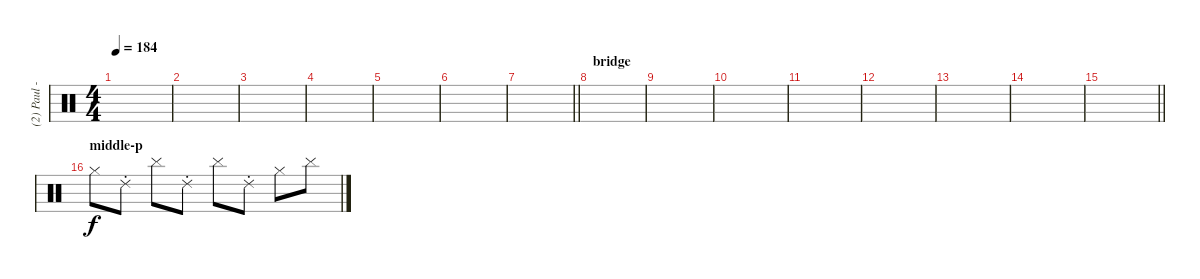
\track ("(2) Paul - DJ" "(2) Paul -") {instrument percussion}
\staff {score}
\articulation defaults
\ts (4 4)
\tempo 184
\clef neutral
\ks c
|
|
|
|
|
|
\barLineRight lightlight
|
\section ("" "bridge")
|
|
|
|
|
|
|
\barLineRight lightlight
|
\section ("" "middle-p")
"Hi-Hat (closed)".8 "Ride (choke) 2".8 "Cymbal (hit)".8 "Ride (choke) 2".8 "Cymbal (hit)".8 "Ride (choke) 2".8 "Hi-Hat (closed)".8 "Cymbal (hit)".8
